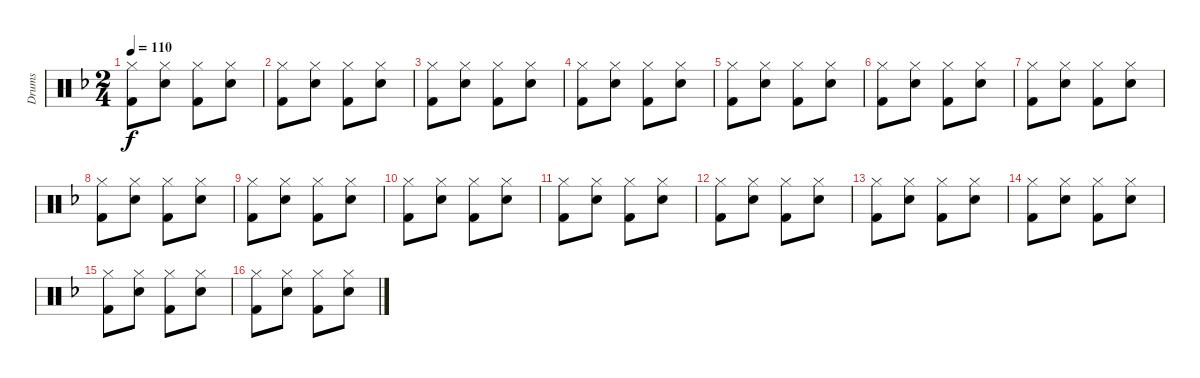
\track ("Drums" "Drums") {instrument percussion}
\staff {score}
\articulation defaults
\ts (2 4)
\tempo 110
\clef neutral
\ks dminor
("Hi-Hat (closed)" "Kick (hit) 2").8{dy f} ("Hi-Hat (closed)" "Electric Snare (hit)").8 ("Hi-Hat (closed)" "Kick (hit) 2").8 ("Hi-Hat (closed)" "Electric Snare (hit)").8 |
("Hi-Hat (closed)" "Kick (hit) 2").8 ("Hi-Hat (closed)" "Electric Snare (hit)").8 ("Hi-Hat (closed)" "Kick (hit) 2").8 ("Hi-Hat (closed)" "Electric Snare (hit)").8 |
("Hi-Hat (closed)" "Kick (hit) 2").8 ("Hi-Hat (closed)" "Electric Snare (hit)").8 ("Hi-Hat (closed)" "Kick (hit) 2").8 ("Hi-Hat (closed)" "Electric Snare (hit)").8 |
("Hi-Hat (closed)" "Kick (hit) 2").8 ("Hi-Hat (closed)" "Electric Snare (hit)").8 ("Hi-Hat (closed)" "Kick (hit) 2").8 ("Hi-Hat (closed)" "Electric Snare (hit)").8 |
("Hi-Hat (closed)" "Kick (hit) 2").8 ("Hi-Hat (closed)" "Electric Snare (hit)").8 ("Hi-Hat (closed)" "Kick (hit) 2").8 ("Hi-Hat (closed)" "Electric Snare (hit)").8 |
("Hi-Hat (closed)" "Kick (hit) 2").8 ("Hi-Hat (closed)" "Electric Snare (hit)").8 ("Hi-Hat (closed)" "Kick (hit) 2").8 ("Hi-Hat (closed)" "Electric Snare (hit)").8 |
("Hi-Hat (closed)" "Kick (hit) 2").8 ("Hi-Hat (closed)" "Electric Snare (hit)").8 ("Hi-Hat (closed)" "Kick (hit) 2").8 ("Hi-Hat (closed)" "Electric Snare (hit)").8 |
("Hi-Hat (closed)" "Kick (hit) 2").8 ("Hi-Hat (closed)" "Electric Snare (hit)").8 ("Hi-Hat (closed)" "Kick (hit) 2").8 ("Hi-Hat (closed)" "Electric Snare (hit)").8 |
("Hi-Hat (closed)" "Kick (hit) 2").8 ("Hi-Hat (closed)" "Electric Snare (hit)").8 ("Hi-Hat (closed)" "Kick (hit) 2").8 ("Hi-Hat (closed)" "Electric Snare (hit)").8 |
("Hi-Hat (closed)" "Kick (hit) 2").8 ("Hi-Hat (closed)" "Electric Snare (hit)").8 ("Hi-Hat (closed)" "Kick (hit) 2").8 ("Hi-Hat (closed)" "Electric Snare (hit)").8 |
("Hi-Hat (closed)" "Kick (hit) 2").8 ("Hi-Hat (closed)" "Electric Snare (hit)").8 ("Hi-Hat (closed)" "Kick (hit) 2").8 ("Hi-Hat (closed)" "Electric Snare (hit)").8 |
("Hi-Hat (closed)" "Kick (hit) 2").8 ("Hi-Hat (closed)" "Electric Snare (hit)").8 ("Hi-Hat (closed)" "Kick (hit) 2").8 ("Hi-Hat (closed)" "Electric Snare (hit)").8 |
("Hi-Hat (closed)" "Kick (hit) 2").8 ("Hi-Hat (closed)" "Electric Snare (hit)").8 ("Hi-Hat (closed)" "Kick (hit) 2").8 ("Hi-Hat (closed)" "Electric Snare (hit)").8 |
("Hi-Hat (closed)" "Kick (hit) 2").8 ("Hi-Hat (closed)" "Electric Snare (hit)").8 ("Hi-Hat (closed)" "Kick (hit) 2").8 ("Hi-Hat (closed)" "Electric Snare (hit)").8 |
("Hi-Hat (closed)" "Kick (hit) 2").8 ("Hi-Hat (closed)" "Electric Snare (hit)").8 ("Hi-Hat (closed)" "Kick (hit) 2").8 ("Hi-Hat (closed)" "Electric Snare (hit)").8 |
("Hi-Hat (closed)" "Kick (hit) 2").8 ("Hi-Hat (closed)" "Electric Snare (hit)").8 ("Hi-Hat (closed)" "Kick (hit) 2").8 ("Hi-Hat (closed)" "Electric Snare (hit)").8
